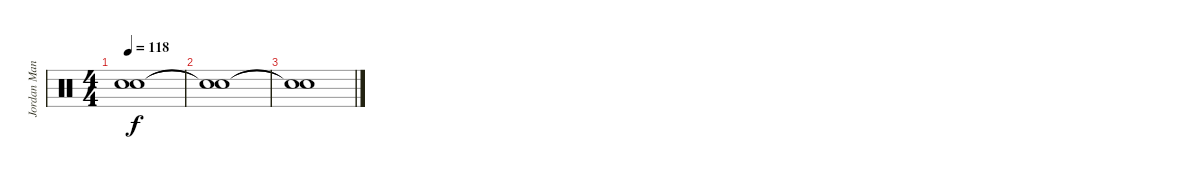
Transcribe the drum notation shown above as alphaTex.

\track ("Jordan Mancino (Drums)" "Jordan Man") {instrument percussion}
\staff {score}
\articulation defaults
\ts (4 4)
\tempo 118
\clef neutral
\ks c
("Snare (hit)"{t} "Snare (hit)"{t}).1{dy f} |
("Snare (hit)"{t} "Snare (hit)"{t}).1 |
("Snare (hit)"{t} "Snare (hit)"{t}).1
